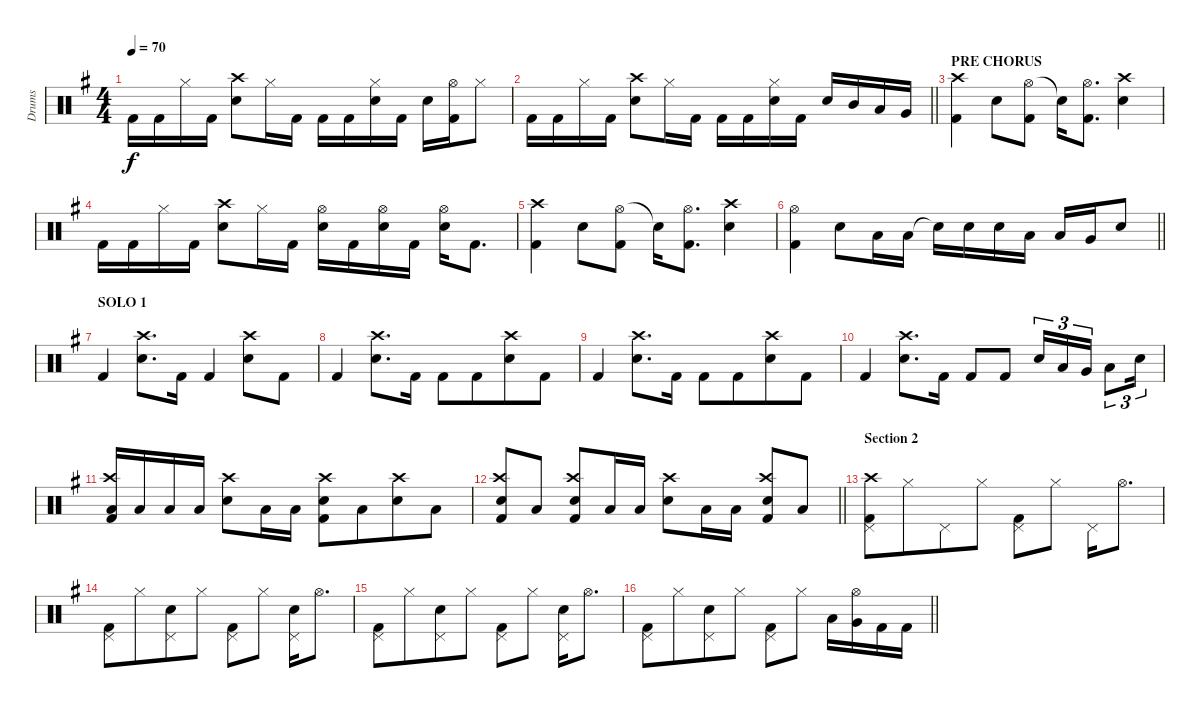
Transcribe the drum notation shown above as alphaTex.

\track ("Drums" "Drums") {instrument percussion}
\staff {score}
\articulation defaults
\ts (4 4)
\tempo 70
\clef neutral
\ks eminor "Kick (hit) 2".16{dy f} "Kick (hit) 2".16 "Hi-Hat (closed)".16 "Kick (hit) 2".16
("Crash high (hit)" "Electric Snare (hit)").8 "Hi-Hat (closed)".16 "Kick (hit) 2".16 "Kick (hit) 2".16 "Kick (hit) 2".16 ("Hi-Hat (closed)" "Electric Snare (hit)").16 "Kick (hit) 2".16 "Electric Snare (hit)".16 ("Hi-Hat (open)" "Kick (hit) 2").16 "Hi-Hat (closed)".8 |
\barLineRight lightlight "Kick (hit) 2".16 "Kick (hit) 2".16 "Hi-Hat (closed)".16 "Kick (hit) 2".16
("Crash high (hit)" "Electric Snare (hit)").8 "Hi-Hat (closed)".16 "Kick (hit) 2".16 "Kick (hit) 2".16 "Kick (hit) 2".16 ("Hi-Hat (closed)" "Electric Snare (hit)").16 "Kick (hit) 2".16 "Electric Snare (hit)".16 "Mid Tom (hit)".16 "Low Tom (hit)".16 "Very Low Tom (hit)".16 |
\section ("" "PRE CHORUS")
("Crash high (hit)" "Kick (hit) 2").4 "Electric Snare (hit)".8 ("Hi-Hat (open)" "Kick (hit) 2").8 "Snare (hit)"{t}.16 ("Hi-Hat (open)" "Kick (hit) 2").8{d} ("Crash high (hit)" "Electric Snare (hit)").4 |
"Kick (hit) 2".16 "Kick (hit) 2".16 "Hi-Hat (closed)".16 "Kick (hit) 2".16 ("Crash high (hit)" "Electric Snare (hit)").8 "Hi-Hat (closed)".16 "Kick (hit) 2".16 ("Hi-Hat (open)" "Electric Snare (hit)").16 "Kick (hit) 2".16 ("Hi-Hat (open)" "Electric Snare (hit)").16 "Kick (hit) 2".16 ("Hi-Hat (open)" "Electric Snare (hit)").16 "Kick (hit) 2".8{d} |
("Crash high (hit)" "Kick (hit) 2").4 "Electric Snare (hit)".8 ("Hi-Hat (open)" "Kick (hit) 2").8 "Snare (hit)"{t}.16 ("Hi-Hat (open)" "Kick (hit) 2").8{d} ("Crash high (hit)" "Electric Snare (hit)").4 |
\barLineRight lightlight
("Hi-Hat (open)" "Kick (hit) 2").4 "Electric Snare (hit)".8 "Low Tom (hit)".16 "Low Tom (hit)".16 "Snare (hit)"{t}.16 "Electric Snare (hit)".16 "Electric Snare (hit)".16 "Low Tom (hit)".16 "Low Tom (hit)".16 "Very Low Tom (hit)".16 "Electric Snare (hit)".8 |
\section ("" "SOLO 1")
"Kick (hit) 2".4 ("Crash high (hit)" "Electric Snare (hit)").8{d} "Kick (hit) 2".16 "Kick (hit) 2".4 ("Crash high (hit)" "Electric Snare (hit)").8 "Kick (hit) 2".8 |
"Kick (hit) 2".4 ("Crash high (hit)" "Electric Snare (hit)").8{d} "Kick (hit) 2".16 "Kick (hit) 2".8 "Kick (hit) 2".8{beam merge} ("Crash high (hit)" "Electric Snare (hit)").8 "Kick (hit) 2".8 |
"Kick (hit) 2".4 ("Crash high (hit)" "Electric Snare (hit)").8{d} "Kick (hit) 2".16 "Kick (hit) 2".8 "Kick (hit) 2".8{beam merge} ("Crash high (hit)" "Electric Snare (hit)").8 "Kick (hit) 2".8 |
"Kick (hit) 2".4 ("Crash high (hit)" "Electric Snare (hit)").8{d} "Kick (hit) 2".16 "Kick (hit) 2".8 "Kick (hit) 2".8 "Electric Snare (hit)".16{tu (3 2)} "Low Tom (hit)".16{tu (3 2)} "Very Low Tom (hit)".16{tu (3 2)} "Low Tom (hit)".8{tu (3 2)} "Electric Snare (hit)".16{tu (3 2)} |
("Crash high (hit)" "Low Tom (hit)" "Kick (hit) 2").16 "Low Tom (hit)".16 "Low Tom (hit)".16 "Low Tom (hit)".16 ("Crash high (hit)" "Electric Snare (hit)").8 "Low Tom (hit)".16 "Low Tom (hit)".16 ("Crash high (hit)" "Electric Snare (hit)" "Kick (hit) 2").8 "Low Tom (hit)".8{beam merge} ("Crash high (hit)" "Electric Snare (hit)").8 "Low Tom (hit)".8 |
\barLineRight lightlight
("Crash high (hit)" "Electric Snare (hit)" "Kick (hit) 2").8 "Low Tom (hit)".8 ("Crash high (hit)" "Electric Snare (hit)" "Kick (hit) 2").8 "Low Tom (hit)".16 "Low Tom (hit)".16 ("Crash high (hit)" "Electric Snare (hit)").8 "Low Tom (hit)".16 "Low Tom (hit)".16 ("Crash high (hit)" "Electric Snare (hit)" "Kick (hit) 2").8 "Low Tom (hit)".8 |
\section ("" "Section 2")
("Crash high (hit)" "Pedal Hi-Hat (hit)" "Kick (hit) 2").8 "Hi-Hat (closed)".8{beam merge} "Pedal Hi-Hat (hit)".8 "Hi-Hat (closed)".8 ("Pedal Hi-Hat (hit)" "Kick (hit) 2").8 "Hi-Hat (closed)".8 "Pedal Hi-Hat (hit)".16 "Hi-Hat (open)".8{d} |
("Pedal Hi-Hat (hit)" "Kick (hit) 2").8 "Hi-Hat (closed)".8{beam merge} ("Pedal Hi-Hat (hit)" "Electric Snare (hit)").8 "Hi-Hat (closed)".8 ("Pedal Hi-Hat (hit)" "Kick (hit) 2").8 "Hi-Hat (closed)".8 ("Pedal Hi-Hat (hit)" "Electric Snare (hit)").16 "Hi-Hat (open)".8{d} |
("Pedal Hi-Hat (hit)" "Kick (hit) 2").8 "Hi-Hat (closed)".8{beam merge} ("Pedal Hi-Hat (hit)" "Electric Snare (hit)").8 "Hi-Hat (closed)".8 ("Pedal Hi-Hat (hit)" "Kick (hit) 2").8 "Hi-Hat (closed)".8 ("Pedal Hi-Hat (hit)" "Electric Snare (hit)").16 "Hi-Hat (open)".8{d} |
\barLineRight lightlight
("Pedal Hi-Hat (hit)" "Kick (hit) 2").8 "Hi-Hat (closed)".8{beam merge} ("Pedal Hi-Hat (hit)" "Electric Snare (hit)").8 "Hi-Hat (closed)".8 ("Pedal Hi-Hat (hit)" "Kick (hit) 2").8 "Hi-Hat (closed)".8 "Low Tom (hit)".16 ("Hi-Hat (open)" "Very Low Tom (hit)").16 "Kick (hit) 2".16 "Kick (hit) 2".16
